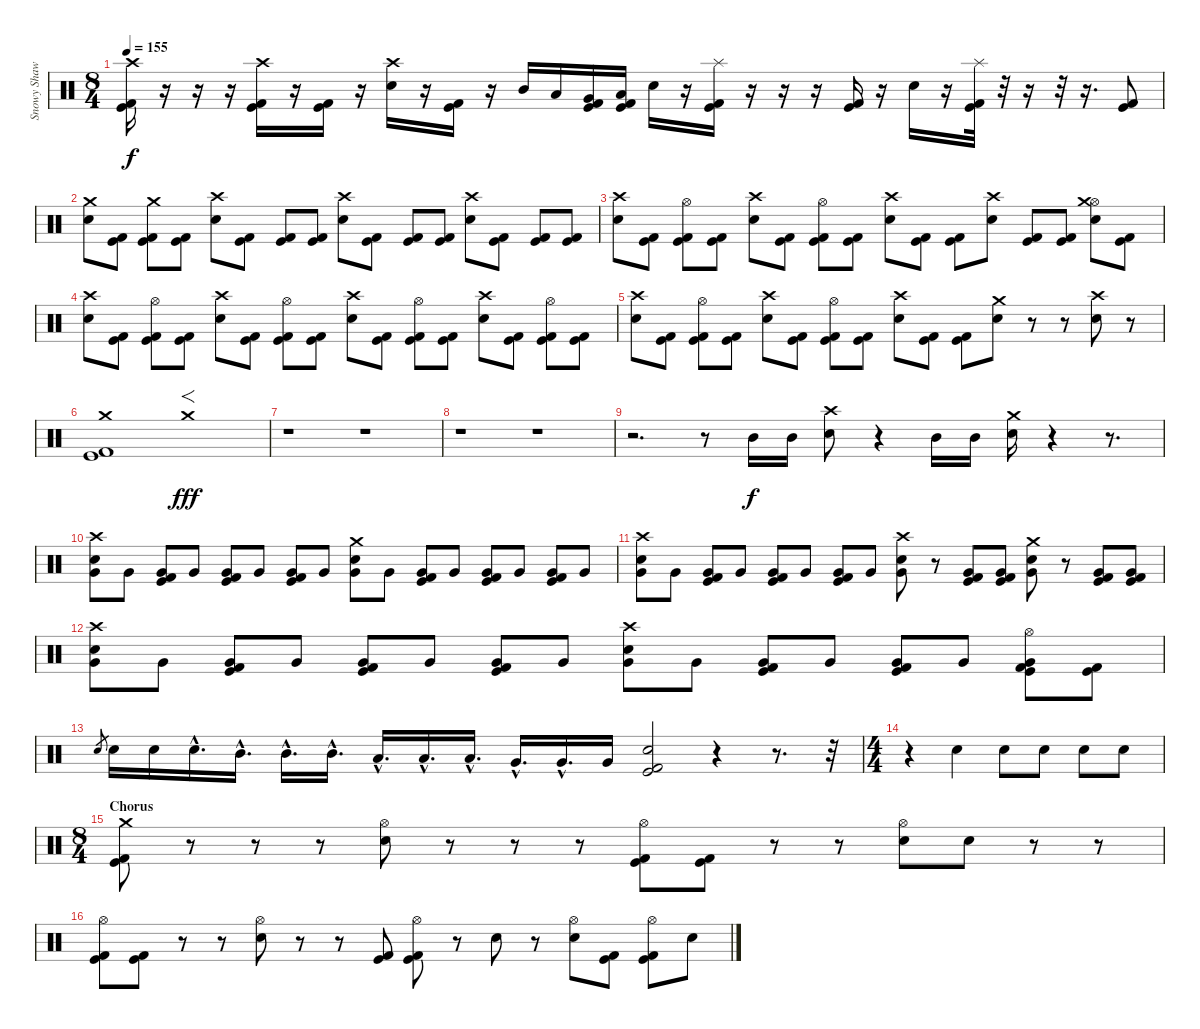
\track ("Snowy Shaw" "Snowy Shaw") {instrument percussion}
\staff {score}
\articulation defaults
\ts (8 4)
\tempo 155
\clef neutral
\ks c
("Crash high (hit)" "Kick (hit)" "Kick (hit) 2").16{dy f} r.16 r.16 r.16 ("Crash high (hit)" "Kick (hit) 2" "Kick (hit)").16 r.16 ("Kick (hit) 2" "Kick (hit)").16 r.16 ("Crash high (hit)" "Electric Snare (hit)").16 r.16 ("Kick (hit) 2" "Kick (hit)").16 r.16 "Mid Tom (hit)".16 "Low Tom (hit)".16 ("Very Low Tom (hit)" "Kick (hit) 2" "Kick (hit)").16 ("Low Tom (hit)" "Kick (hit) 2" "Kick (hit)").16 "Electric Snare (hit)".16 r.16 ("Splash (hit)" "Kick (hit) 2" "Kick (hit)").16 r.16 r.16 r.16 ("Kick (hit) 2" "Kick (hit)").16 r.16 "Electric Snare (hit)".16 r.16 ("Splash (hit)" "Kick (hit) 2" "Kick (hit)").32 r.32 r.16 r.32 r.16{d} ("Kick (hit) 2" "Kick (hit)").8 |
("Crash medium (hit)" "Electric Snare (hit)").8 ("Kick (hit)" "Kick (hit) 2").8 ("Crash medium (hit)" "Kick (hit)" "Kick (hit) 2").8 ("Kick (hit)" "Kick (hit) 2").8 ("Crash high (hit)" "Electric Snare (hit)").8 ("Kick (hit)" "Kick (hit) 2").8 ("Kick (hit)" "Kick (hit) 2").8 ("Kick (hit)" "Kick (hit) 2").8 ("Crash high (hit)" "Electric Snare (hit)").8 ("Kick (hit)" "Kick (hit) 2").8 ("Kick (hit)" "Kick (hit) 2").8 ("Kick (hit)" "Kick (hit) 2").8 ("Crash high (hit)" "Electric Snare (hit)").8 ("Kick (hit)" "Kick (hit) 2").8 ("Kick (hit)" "Kick (hit) 2").8 ("Kick (hit)" "Kick (hit) 2").8 |
("Crash high (hit)" "Electric Snare (hit)").8 ("Kick (hit)" "Kick (hit) 2").8 ("Hi-Hat (open)" "Kick (hit)" "Kick (hit) 2").8 ("Kick (hit)" "Kick (hit) 2").8 ("Crash high (hit)" "Electric Snare (hit)").8 ("Kick (hit)" "Kick (hit) 2").8 ("Hi-Hat (open)" "Kick (hit)" "Kick (hit) 2").8 ("Kick (hit)" "Kick (hit) 2").8 ("Crash high (hit)" "Electric Snare (hit)").8 ("Kick (hit)" "Kick (hit) 2").8 ("Kick (hit)" "Kick (hit) 2").8 ("Crash high (hit)" "Electric Snare (hit)").8 ("Kick (hit) 2" "Kick (hit)").8 ("Kick (hit)" "Kick (hit) 2").8 ("Hi-Hat (open)" "Crash medium (hit)" "Electric Snare (hit)").8 ("Kick (hit)" "Kick (hit) 2").8 |
("Crash high (hit)" "Electric Snare (hit)").8 ("Kick (hit)" "Kick (hit) 2").8 ("Hi-Hat (open)" "Kick (hit)" "Kick (hit) 2").8 ("Kick (hit)" "Kick (hit) 2").8 ("Crash high (hit)" "Electric Snare (hit)").8 ("Kick (hit)" "Kick (hit) 2").8 ("Hi-Hat (open)" "Kick (hit)" "Kick (hit) 2").8 ("Kick (hit)" "Kick (hit) 2").8 ("Crash high (hit)" "Electric Snare (hit)").8 ("Kick (hit)" "Kick (hit) 2").8 ("Hi-Hat (open)" "Kick (hit)" "Kick (hit) 2").8 ("Kick (hit)" "Kick (hit) 2").8 ("Crash high (hit)" "Electric Snare (hit)").8 ("Kick (hit)" "Kick (hit) 2").8 ("Hi-Hat (open)" "Kick (hit)" "Kick (hit) 2").8 ("Kick (hit)" "Kick (hit) 2").8 |
("Crash high (hit)" "Electric Snare (hit)").8 ("Kick (hit)" "Kick (hit) 2").8 ("Hi-Hat (open)" "Kick (hit)" "Kick (hit) 2").8 ("Kick (hit)" "Kick (hit) 2").8 ("Crash high (hit)" "Electric Snare (hit)").8 ("Kick (hit)" "Kick (hit) 2").8 ("Hi-Hat (open)" "Kick (hit)" "Kick (hit) 2").8 ("Kick (hit)" "Kick (hit) 2").8 ("Crash high (hit)" "Electric Snare (hit)").8 ("Kick (hit)" "Kick (hit) 2").8 ("Kick (hit)" "Kick (hit) 2").8 ("Crash medium (hit)" "Electric Snare (hit)").8 r.8 r.8 ("Crash high (hit)" "Electric Snare (hit)").8 r.8 |
("Crash medium (hit)" "Kick (hit)" "Kick (hit) 2").1 "Crash medium (hit)".1{f dy fff} |
r.1 r.1 |
r.1 r.1 |
r.2{d} r.8 "Mid Tom (hit)".16{dy f} "Mid Tom (hit)".16 ("Crash high (hit)" "Electric Snare (hit)").8 r.4 "Mid Tom (hit)".16 "Mid Tom (hit)".16 ("Crash medium (hit)" "Electric Snare (hit)").16 r.4 r.8{d} |
("Crash high (hit)" "Electric Snare (hit)" "Very Low Tom (hit)").8 "Very Low Tom (hit)".8 ("Kick (hit)" "Very Low Tom (hit)" "Kick (hit) 2").8 "Very Low Tom (hit)".8 ("Kick (hit)" "Very Low Tom (hit)" "Kick (hit) 2").8 "Very Low Tom (hit)".8 ("Kick (hit)" "Very Low Tom (hit)" "Kick (hit) 2").8 "Very Low Tom (hit)".8 ("Crash medium (hit)" "Electric Snare (hit)" "Very Low Tom (hit)").8 "Very Low Tom (hit)".8 ("Kick (hit)" "Very Low Tom (hit)" "Kick (hit) 2").8 "Very Low Tom (hit)".8 ("Kick (hit)" "Very Low Tom (hit)" "Kick (hit) 2").8 "Very Low Tom (hit)".8 ("Kick (hit)" "Very Low Tom (hit)" "Kick (hit) 2").8 "Very Low Tom (hit)".8 |
("Crash high (hit)" "Electric Snare (hit)" "Very Low Tom (hit)").8 "Very Low Tom (hit)".8 ("Kick (hit)" "Very Low Tom (hit)" "Kick (hit) 2").8 "Very Low Tom (hit)".8 ("Kick (hit)" "Very Low Tom (hit)" "Kick (hit) 2").8 "Very Low Tom (hit)".8 ("Kick (hit)" "Very Low Tom (hit)" "Kick (hit) 2").8 "Very Low Tom (hit)".8 ("Crash high (hit)" "Electric Snare (hit)" "Very Low Tom (hit)").8 r.8 ("Kick (hit)" "Very Low Tom (hit)" "Kick (hit) 2").8 ("Kick (hit)" "Very Low Tom (hit)" "Kick (hit) 2").8 ("Crash medium (hit)" "Electric Snare (hit)" "Very Low Tom (hit)").8 r.8 ("Kick (hit)" "Very Low Tom (hit)" "Kick (hit) 2").8 ("Kick (hit)" "Very Low Tom (hit)" "Kick (hit) 2").8 |
("Crash high (hit)" "Electric Snare (hit)" "Very Low Tom (hit)").8 "Very Low Tom (hit)".8 ("Kick (hit)" "Very Low Tom (hit)" "Kick (hit) 2").8 "Very Low Tom (hit)".8 ("Kick (hit)" "Very Low Tom (hit)" "Kick (hit) 2").8 "Very Low Tom (hit)".8 ("Kick (hit)" "Very Low Tom (hit)" "Kick (hit) 2").8 "Very Low Tom (hit)".8 ("Crash high (hit)" "Electric Snare (hit)" "Very Low Tom (hit)").8 "Very Low Tom (hit)".8 ("Kick (hit)" "Very Low Tom (hit)" "Kick (hit) 2").8 "Very Low Tom (hit)".8 ("Kick (hit)" "Very Low Tom (hit)" "Kick (hit) 2").8 "Very Low Tom (hit)".8 ("Hi-Hat (open)" "Kick (hit)" "Very Low Tom (hit)" "Kick (hit) 2").8 ("Kick (hit) 2" "Kick (hit)").8 |
"Electric Snare (hit)".8{gr} "Electric Snare (hit)".16 "Electric Snare (hit)".16 "Electric Snare (hit)"{hac}.16{d} "Mid Tom (hit)"{hac}.16{d} "Mid Tom (hit)"{hac}.16{d} "Mid Tom (hit)"{hac}.16{d} "Low Tom (hit)"{hac}.16{d} "Low Tom (hit)"{hac}.16{d} "Low Tom (hit)"{hac}.16{d} "Very Low Tom (hit)"{hac}.16{d} "Very Low Tom (hit)"{hac}.16{d} "Very Low Tom (hit)".16 ("Electric Snare (hit)" "Kick (hit) 2" "Kick (hit)").2 r.4 r.8{d} r.32 |
\ts (4 4)
r.4 "Electric Snare (hit)".4 "Electric Snare (hit)".8 "Electric Snare (hit)".8 "Electric Snare (hit)".8 "Electric Snare (hit)".8 |
\ts (8 4)
\section ("" "Chorus")
("Crash medium (hit)" "Kick (hit)" "Kick (hit) 2").8 r.8 r.8 r.8 ("Hi-Hat (open)" "Electric Snare (hit)").8 r.8 r.8 r.8 ("Hi-Hat (open)" "Kick (hit) 2" "Kick (hit)").8 ("Kick (hit) 2" "Kick (hit)").8 r.8 r.8 ("Hi-Hat (open)" "Electric Snare (hit)").8 "Electric Snare (hit)".8 r.8 r.8 |
("Hi-Hat (open)" "Kick (hit)" "Kick (hit) 2").8 ("Kick (hit) 2" "Kick (hit)").8 r.8 r.8 ("Hi-Hat (open)" "Electric Snare (hit)").8 r.8 r.8 ("Kick (hit) 2" "Kick (hit)").8 ("Hi-Hat (open)" "Kick (hit) 2" "Kick (hit)").8 r.8 "Electric Snare (hit)".8 r.8 ("Hi-Hat (open)" "Electric Snare (hit)").8 ("Kick (hit) 2" "Kick (hit)").8 ("Hi-Hat (open)" "Kick (hit) 2" "Kick (hit)").8 "Electric Snare (hit)".8
